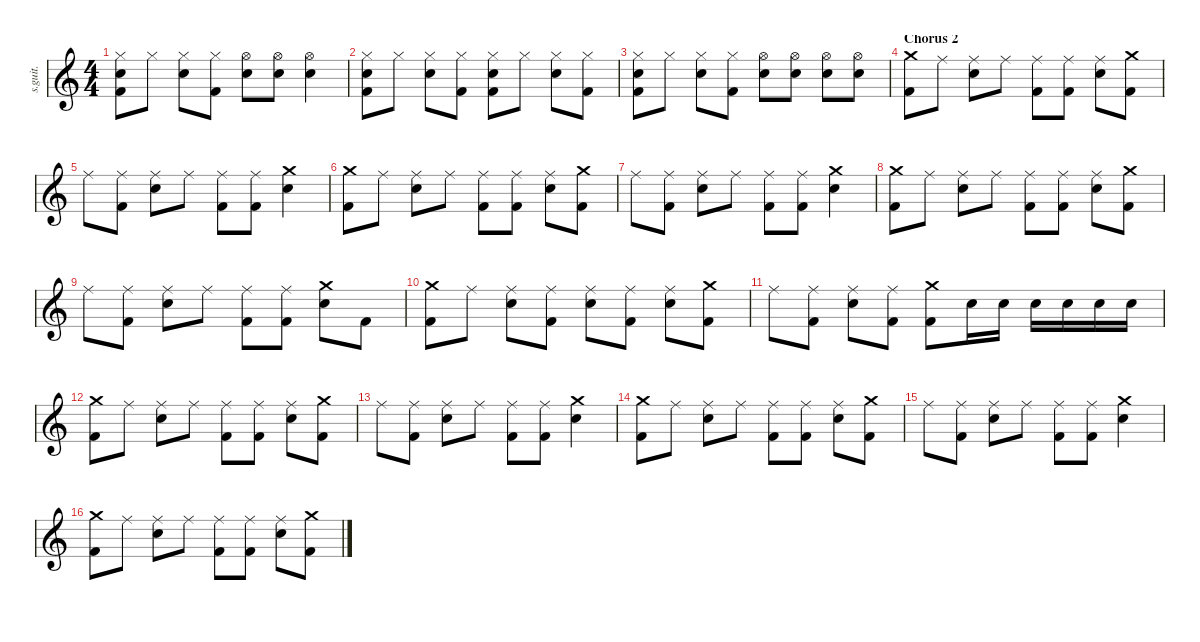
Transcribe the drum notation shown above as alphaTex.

\defaultSystemsLayout 4
\hideDynamics
\bracketExtendMode nobrackets
\track ("Earth" "s.guit.") {instrument percussion}
\staff {score}
\articulation defaults
\ts (4 4)
\tempo (130 hide)
\clef g2
\ks c
("Hi-Hat (closed)" "Snare (hit) 2" "Kick (hit) 2").8{lyrics (0 "") lyrics (1 "") lyrics (2 "") lyrics (3 "") lyrics (4 "") dy f} "Hi-Hat (closed)".8{lyrics (0 "") lyrics (1 "") lyrics (2 "") lyrics (3 "") lyrics (4 "")} ("Hi-Hat (closed)" "Snare (hit) 2").8{lyrics (0 "") lyrics (1 "") lyrics (2 "") lyrics (3 "") lyrics (4 "")} ("Hi-Hat (closed)" "Kick (hit) 2").8{lyrics (0 "") lyrics (1 "") lyrics (2 "") lyrics (3 "") lyrics (4 "")} ("Hi-Hat (open)" "Snare (hit) 2").8{lyrics (0 "") lyrics (1 "") lyrics (2 "") lyrics (3 "") lyrics (4 "")} ("Hi-Hat (open)" "Snare (hit) 2").8{lyrics (0 "") lyrics (1 "") lyrics (2 "") lyrics (3 "") lyrics (4 "")} ("Hi-Hat (open)" "Snare (hit) 2").4{lyrics (0 "") lyrics (1 "") lyrics (2 "") lyrics (3 "") lyrics (4 "")} |
("Hi-Hat (closed)" "Snare (hit) 2" "Kick (hit) 2").8{lyrics (0 "") lyrics (1 "") lyrics (2 "") lyrics (3 "") lyrics (4 "")} "Hi-Hat (closed)".8{lyrics (0 "") lyrics (1 "") lyrics (2 "") lyrics (3 "") lyrics (4 "")} ("Hi-Hat (closed)" "Snare (hit) 2").8{lyrics (0 "") lyrics (1 "") lyrics (2 "") lyrics (3 "") lyrics (4 "")} ("Hi-Hat (closed)" "Kick (hit) 2").8{lyrics (0 "") lyrics (1 "") lyrics (2 "") lyrics (3 "") lyrics (4 "")} ("Hi-Hat (closed)" "Snare (hit) 2" "Kick (hit) 2").8{lyrics (0 "") lyrics (1 "") lyrics (2 "") lyrics (3 "") lyrics (4 "")} "Hi-Hat (closed)".8{lyrics (0 "") lyrics (1 "") lyrics (2 "") lyrics (3 "") lyrics (4 "")} ("Hi-Hat (closed)" "Snare (hit) 2").8{lyrics (0 "") lyrics (1 "") lyrics (2 "") lyrics (3 "") lyrics (4 "")} ("Hi-Hat (closed)" "Kick (hit) 2").8{lyrics (0 "") lyrics (1 "") lyrics (2 "") lyrics (3 "") lyrics (4 "")} |
("Hi-Hat (closed)" "Snare (hit) 2" "Kick (hit) 2").8{lyrics (0 "") lyrics (1 "") lyrics (2 "") lyrics (3 "") lyrics (4 "")} "Hi-Hat (closed)".8{lyrics (0 "") lyrics (1 "") lyrics (2 "") lyrics (3 "") lyrics (4 "")} ("Hi-Hat (closed)" "Snare (hit) 2").8{lyrics (0 "") lyrics (1 "") lyrics (2 "") lyrics (3 "") lyrics (4 "")} ("Hi-Hat (closed)" "Kick (hit) 2").8{lyrics (0 "") lyrics (1 "") lyrics (2 "") lyrics (3 "") lyrics (4 "")} ("Hi-Hat (open)" "Snare (hit) 2").8{lyrics (0 "") lyrics (1 "") lyrics (2 "") lyrics (3 "") lyrics (4 "")} ("Hi-Hat (open)" "Snare (hit) 2").8{lyrics (0 "") lyrics (1 "") lyrics (2 "") lyrics (3 "") lyrics (4 "")} ("Hi-Hat (open)" "Snare (hit) 2").8{lyrics (0 "") lyrics (1 "") lyrics (2 "") lyrics (3 "") lyrics (4 "")} ("Hi-Hat (open)" "Snare (hit) 2").8{lyrics (0 "") lyrics (1 "") lyrics (2 "") lyrics (3 "") lyrics (4 "")} |
\section ("" "Chorus 2")
("Crash medium (hit)" "Kick (hit) 2").8{lyrics (0 "") lyrics (1 "") lyrics (2 "") lyrics (3 "") lyrics (4 "")} "Ride (middle)".8{lyrics (0 "") lyrics (1 "") lyrics (2 "") lyrics (3 "") lyrics (4 "")} ("Ride (middle)" "Snare (hit) 2").8{lyrics (0 "") lyrics (1 "") lyrics (2 "") lyrics (3 "") lyrics (4 "")} "Ride (middle)".8{lyrics (0 "") lyrics (1 "") lyrics (2 "") lyrics (3 "") lyrics (4 "")} ("Ride (middle)" "Kick (hit) 2").8{lyrics (0 "") lyrics (1 "") lyrics (2 "") lyrics (3 "") lyrics (4 "")} ("Ride (middle)" "Kick (hit) 2").8{lyrics (0 "") lyrics (1 "") lyrics (2 "") lyrics (3 "") lyrics (4 "")} ("Ride (middle)" "Snare (hit) 2").8{lyrics (0 "") lyrics (1 "") lyrics (2 "") lyrics (3 "") lyrics (4 "")} ("Crash medium (hit)" "Kick (hit) 2").8{lyrics (0 "") lyrics (1 "") lyrics (2 "") lyrics (3 "") lyrics (4 "")} |
"Ride (middle)".8{lyrics (0 "") lyrics (1 "") lyrics (2 "") lyrics (3 "") lyrics (4 "")} ("Ride (middle)" "Kick (hit) 2").8{lyrics (0 "") lyrics (1 "") lyrics (2 "") lyrics (3 "") lyrics (4 "")} ("Ride (middle)" "Snare (hit) 2").8{lyrics (0 "") lyrics (1 "") lyrics (2 "") lyrics (3 "") lyrics (4 "")} "Ride (middle)".8{lyrics (0 "") lyrics (1 "") lyrics (2 "") lyrics (3 "") lyrics (4 "")} ("Ride (middle)" "Kick (hit) 2").8{lyrics (0 "") lyrics (1 "") lyrics (2 "") lyrics (3 "") lyrics (4 "")} ("Ride (middle)" "Kick (hit) 2").8{lyrics (0 "") lyrics (1 "") lyrics (2 "") lyrics (3 "") lyrics (4 "")} ("Crash medium (hit)" "Snare (hit) 2").4{lyrics (0 "") lyrics (1 "") lyrics (2 "") lyrics (3 "") lyrics (4 "")} |
("Crash medium (hit)" "Kick (hit) 2").8{lyrics (0 "") lyrics (1 "") lyrics (2 "") lyrics (3 "") lyrics (4 "")} "Ride (middle)".8{lyrics (0 "") lyrics (1 "") lyrics (2 "") lyrics (3 "") lyrics (4 "")} ("Ride (middle)" "Snare (hit) 2").8{lyrics (0 "") lyrics (1 "") lyrics (2 "") lyrics (3 "") lyrics (4 "")} "Ride (middle)".8{lyrics (0 "") lyrics (1 "") lyrics (2 "") lyrics (3 "") lyrics (4 "")} ("Ride (middle)" "Kick (hit) 2").8{lyrics (0 "") lyrics (1 "") lyrics (2 "") lyrics (3 "") lyrics (4 "")} ("Ride (middle)" "Kick (hit) 2").8{lyrics (0 "") lyrics (1 "") lyrics (2 "") lyrics (3 "") lyrics (4 "")} ("Ride (middle)" "Snare (hit) 2").8{lyrics (0 "") lyrics (1 "") lyrics (2 "") lyrics (3 "") lyrics (4 "")} ("Crash medium (hit)" "Kick (hit) 2").8{lyrics (0 "") lyrics (1 "") lyrics (2 "") lyrics (3 "") lyrics (4 "")} |
"Ride (middle)".8{lyrics (0 "") lyrics (1 "") lyrics (2 "") lyrics (3 "") lyrics (4 "")} ("Ride (middle)" "Kick (hit) 2").8{lyrics (0 "") lyrics (1 "") lyrics (2 "") lyrics (3 "") lyrics (4 "")} ("Ride (middle)" "Snare (hit) 2").8{lyrics (0 "") lyrics (1 "") lyrics (2 "") lyrics (3 "") lyrics (4 "")} "Ride (middle)".8{lyrics (0 "") lyrics (1 "") lyrics (2 "") lyrics (3 "") lyrics (4 "")} ("Ride (middle)" "Kick (hit) 2").8{lyrics (0 "") lyrics (1 "") lyrics (2 "") lyrics (3 "") lyrics (4 "")} ("Ride (middle)" "Kick (hit) 2").8{lyrics (0 "") lyrics (1 "") lyrics (2 "") lyrics (3 "") lyrics (4 "")} ("Crash medium (hit)" "Snare (hit) 2").4{lyrics (0 "") lyrics (1 "") lyrics (2 "") lyrics (3 "") lyrics (4 "")} |
("Crash medium (hit)" "Kick (hit) 2").8{lyrics (0 "") lyrics (1 "") lyrics (2 "") lyrics (3 "") lyrics (4 "")} "Ride (middle)".8{lyrics (0 "") lyrics (1 "") lyrics (2 "") lyrics (3 "") lyrics (4 "")} ("Ride (middle)" "Snare (hit) 2").8{lyrics (0 "") lyrics (1 "") lyrics (2 "") lyrics (3 "") lyrics (4 "")} "Ride (middle)".8{lyrics (0 "") lyrics (1 "") lyrics (2 "") lyrics (3 "") lyrics (4 "")} ("Ride (middle)" "Kick (hit) 2").8{lyrics (0 "") lyrics (1 "") lyrics (2 "") lyrics (3 "") lyrics (4 "")} ("Ride (middle)" "Kick (hit) 2").8{lyrics (0 "") lyrics (1 "") lyrics (2 "") lyrics (3 "") lyrics (4 "")} ("Ride (middle)" "Snare (hit) 2").8{lyrics (0 "") lyrics (1 "") lyrics (2 "") lyrics (3 "") lyrics (4 "")} ("Crash medium (hit)" "Kick (hit) 2").8{lyrics (0 "") lyrics (1 "") lyrics (2 "") lyrics (3 "") lyrics (4 "")} |
"Ride (middle)".8{lyrics (0 "") lyrics (1 "") lyrics (2 "") lyrics (3 "") lyrics (4 "")} ("Ride (middle)" "Kick (hit) 2").8{lyrics (0 "") lyrics (1 "") lyrics (2 "") lyrics (3 "") lyrics (4 "")} ("Ride (middle)" "Snare (hit) 2").8{lyrics (0 "") lyrics (1 "") lyrics (2 "") lyrics (3 "") lyrics (4 "")} "Ride (middle)".8{lyrics (0 "") lyrics (1 "") lyrics (2 "") lyrics (3 "") lyrics (4 "")} ("Ride (middle)" "Kick (hit) 2").8{lyrics (0 "") lyrics (1 "") lyrics (2 "") lyrics (3 "") lyrics (4 "")} ("Ride (middle)" "Kick (hit) 2").8{lyrics (0 "") lyrics (1 "") lyrics (2 "") lyrics (3 "") lyrics (4 "")} ("Crash medium (hit)" "Snare (hit) 2").8{lyrics (0 "") lyrics (1 "") lyrics (2 "") lyrics (3 "") lyrics (4 "")} "Kick (hit) 2".8{lyrics (0 "") lyrics (1 "") lyrics (2 "") lyrics (3 "") lyrics (4 "")} |
("Crash medium (hit)" "Kick (hit) 2").8{lyrics (0 "") lyrics (1 "") lyrics (2 "") lyrics (3 "") lyrics (4 "")} "Ride (middle)".8{lyrics (0 "") lyrics (1 "") lyrics (2 "") lyrics (3 "") lyrics (4 "")} ("Ride (middle)" "Snare (hit) 2").8{lyrics (0 "") lyrics (1 "") lyrics (2 "") lyrics (3 "") lyrics (4 "")} ("Ride (middle)" "Kick (hit) 2").8{lyrics (0 "") lyrics (1 "") lyrics (2 "") lyrics (3 "") lyrics (4 "")} ("Ride (middle)" "Snare (hit) 2").8{lyrics (0 "") lyrics (1 "") lyrics (2 "") lyrics (3 "") lyrics (4 "")} ("Ride (middle)" "Kick (hit) 2").8{lyrics (0 "") lyrics (1 "") lyrics (2 "") lyrics (3 "") lyrics (4 "")} ("Ride (middle)" "Snare (hit) 2").8{lyrics (0 "") lyrics (1 "") lyrics (2 "") lyrics (3 "") lyrics (4 "")} ("Crash medium (hit)" "Kick (hit) 2").8{lyrics (0 "") lyrics (1 "") lyrics (2 "") lyrics (3 "") lyrics (4 "")} |
"Ride (middle)".8{lyrics (0 "") lyrics (1 "") lyrics (2 "") lyrics (3 "") lyrics (4 "")} ("Ride (middle)" "Kick (hit) 2").8{lyrics (0 "") lyrics (1 "") lyrics (2 "") lyrics (3 "") lyrics (4 "")} ("Ride (middle)" "Snare (hit) 2").8{lyrics (0 "") lyrics (1 "") lyrics (2 "") lyrics (3 "") lyrics (4 "")} ("Ride (middle)" "Kick (hit) 2").8{lyrics (0 "") lyrics (1 "") lyrics (2 "") lyrics (3 "") lyrics (4 "")} ("Crash medium (hit)" "Kick (hit) 2").8{lyrics (0 "") lyrics (1 "") lyrics (2 "") lyrics (3 "") lyrics (4 "")} "Snare (hit) 2".16{lyrics (0 "") lyrics (1 "") lyrics (2 "") lyrics (3 "") lyrics (4 "")} "Snare (hit) 2".16{lyrics (0 "") lyrics (1 "") lyrics (2 "") lyrics (3 "") lyrics (4 "")} "Snare (hit) 2".16{lyrics (0 "") lyrics (1 "") lyrics (2 "") lyrics (3 "") lyrics (4 "")} "Snare (hit) 2".16{lyrics (0 "") lyrics (1 "") lyrics (2 "") lyrics (3 "") lyrics (4 "")} "Snare (hit) 2".16{lyrics (0 "") lyrics (1 "") lyrics (2 "") lyrics (3 "") lyrics (4 "")} "Snare (hit) 2".16{lyrics (0 "") lyrics (1 "") lyrics (2 "") lyrics (3 "") lyrics (4 "")} |
("Crash medium (hit)" "Kick (hit) 2").8{lyrics (0 "") lyrics (1 "") lyrics (2 "") lyrics (3 "") lyrics (4 "")} "Ride (middle)".8{lyrics (0 "") lyrics (1 "") lyrics (2 "") lyrics (3 "") lyrics (4 "")} ("Ride (middle)" "Snare (hit) 2").8{lyrics (0 "") lyrics (1 "") lyrics (2 "") lyrics (3 "") lyrics (4 "")} "Ride (middle)".8{lyrics (0 "") lyrics (1 "") lyrics (2 "") lyrics (3 "") lyrics (4 "")} ("Ride (middle)" "Kick (hit) 2").8{lyrics (0 "") lyrics (1 "") lyrics (2 "") lyrics (3 "") lyrics (4 "")} ("Ride (middle)" "Kick (hit) 2").8{lyrics (0 "") lyrics (1 "") lyrics (2 "") lyrics (3 "") lyrics (4 "")} ("Ride (middle)" "Snare (hit) 2").8{lyrics (0 "") lyrics (1 "") lyrics (2 "") lyrics (3 "") lyrics (4 "")} ("Crash medium (hit)" "Kick (hit) 2").8{lyrics (0 "") lyrics (1 "") lyrics (2 "") lyrics (3 "") lyrics (4 "")} |
"Ride (middle)".8{lyrics (0 "") lyrics (1 "") lyrics (2 "") lyrics (3 "") lyrics (4 "")} ("Ride (middle)" "Kick (hit) 2").8{lyrics (0 "") lyrics (1 "") lyrics (2 "") lyrics (3 "") lyrics (4 "")} ("Ride (middle)" "Snare (hit) 2").8{lyrics (0 "") lyrics (1 "") lyrics (2 "") lyrics (3 "") lyrics (4 "")} "Ride (middle)".8{lyrics (0 "") lyrics (1 "") lyrics (2 "") lyrics (3 "") lyrics (4 "")} ("Ride (middle)" "Kick (hit) 2").8{lyrics (0 "") lyrics (1 "") lyrics (2 "") lyrics (3 "") lyrics (4 "")} ("Ride (middle)" "Kick (hit) 2").8{lyrics (0 "") lyrics (1 "") lyrics (2 "") lyrics (3 "") lyrics (4 "")} ("Crash medium (hit)" "Snare (hit) 2").4{lyrics (0 "") lyrics (1 "") lyrics (2 "") lyrics (3 "") lyrics (4 "")} |
("Crash medium (hit)" "Kick (hit) 2").8{lyrics (0 "") lyrics (1 "") lyrics (2 "") lyrics (3 "") lyrics (4 "")} "Ride (middle)".8{lyrics (0 "") lyrics (1 "") lyrics (2 "") lyrics (3 "") lyrics (4 "")} ("Ride (middle)" "Snare (hit) 2").8{lyrics (0 "") lyrics (1 "") lyrics (2 "") lyrics (3 "") lyrics (4 "")} "Ride (middle)".8{lyrics (0 "") lyrics (1 "") lyrics (2 "") lyrics (3 "") lyrics (4 "")} ("Ride (middle)" "Kick (hit) 2").8{lyrics (0 "") lyrics (1 "") lyrics (2 "") lyrics (3 "") lyrics (4 "")} ("Ride (middle)" "Kick (hit) 2").8{lyrics (0 "") lyrics (1 "") lyrics (2 "") lyrics (3 "") lyrics (4 "")} ("Ride (middle)" "Snare (hit) 2").8{lyrics (0 "") lyrics (1 "") lyrics (2 "") lyrics (3 "") lyrics (4 "")} ("Crash medium (hit)" "Kick (hit) 2").8{lyrics (0 "") lyrics (1 "") lyrics (2 "") lyrics (3 "") lyrics (4 "")} |
"Ride (middle)".8{lyrics (0 "") lyrics (1 "") lyrics (2 "") lyrics (3 "") lyrics (4 "")} ("Ride (middle)" "Kick (hit) 2").8{lyrics (0 "") lyrics (1 "") lyrics (2 "") lyrics (3 "") lyrics (4 "")} ("Ride (middle)" "Snare (hit) 2").8{lyrics (0 "") lyrics (1 "") lyrics (2 "") lyrics (3 "") lyrics (4 "")} "Ride (middle)".8{lyrics (0 "") lyrics (1 "") lyrics (2 "") lyrics (3 "") lyrics (4 "")} ("Ride (middle)" "Kick (hit) 2").8{lyrics (0 "") lyrics (1 "") lyrics (2 "") lyrics (3 "") lyrics (4 "")} ("Ride (middle)" "Kick (hit) 2").8{lyrics (0 "") lyrics (1 "") lyrics (2 "") lyrics (3 "") lyrics (4 "")} ("Crash medium (hit)" "Snare (hit) 2").4{lyrics (0 "") lyrics (1 "") lyrics (2 "") lyrics (3 "") lyrics (4 "")} |
("Crash medium (hit)" "Kick (hit) 2").8{lyrics (0 "") lyrics (1 "") lyrics (2 "") lyrics (3 "") lyrics (4 "")} "Ride (middle)".8{lyrics (0 "") lyrics (1 "") lyrics (2 "") lyrics (3 "") lyrics (4 "")} ("Ride (middle)" "Snare (hit) 2").8{lyrics (0 "") lyrics (1 "") lyrics (2 "") lyrics (3 "") lyrics (4 "")} "Ride (middle)".8{lyrics (0 "") lyrics (1 "") lyrics (2 "") lyrics (3 "") lyrics (4 "")} ("Ride (middle)" "Kick (hit) 2").8{lyrics (0 "") lyrics (1 "") lyrics (2 "") lyrics (3 "") lyrics (4 "")} ("Ride (middle)" "Kick (hit) 2").8{lyrics (0 "") lyrics (1 "") lyrics (2 "") lyrics (3 "") lyrics (4 "")} ("Ride (middle)" "Snare (hit) 2").8{lyrics (0 "") lyrics (1 "") lyrics (2 "") lyrics (3 "") lyrics (4 "")} ("Crash medium (hit)" "Kick (hit) 2").8{lyrics (0 "") lyrics (1 "") lyrics (2 "") lyrics (3 "") lyrics (4 "")}
